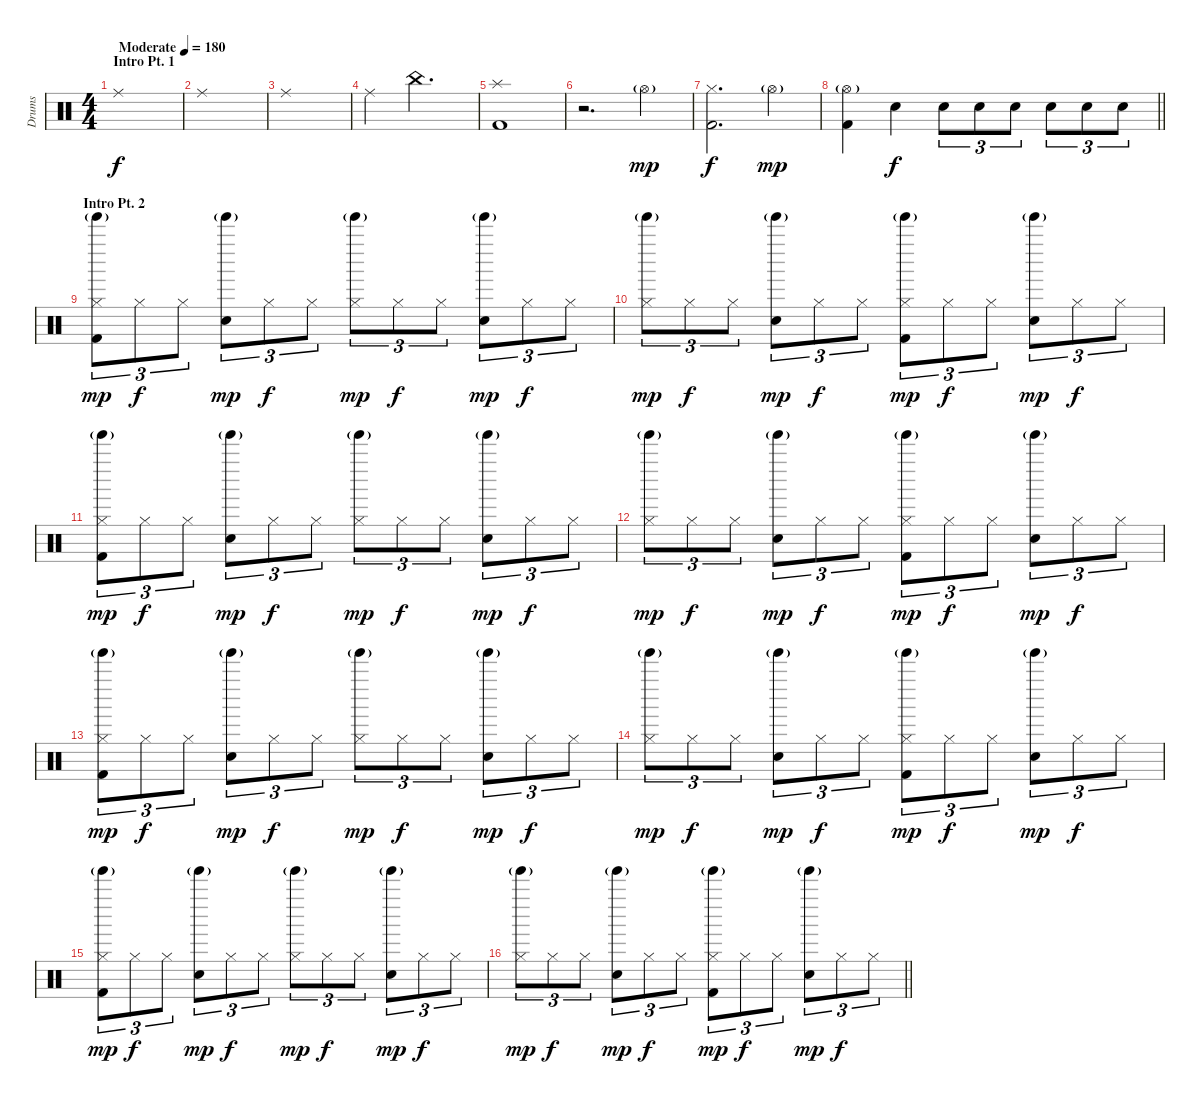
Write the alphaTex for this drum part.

\track ("Drums" "Drums") {instrument percussion}
\staff {score}
\articulation defaults
\ts (4 4)
\section ("" "Intro Pt. 1")
\tempo (180 "Moderate")
\clef neutral
\ks c "Ride (middle)".1{dy f}
|
"Ride (middle)".1 |
"Ride (middle)".1 |
"Ride (middle)".4 "China (hit)".2{d} |
("Splash (hit)" "Kick (hit) 2").1 |
r.2{d} "Hi-Hat (open)"{g}.4{dy mp} |
("Hi-Hat (closed)" "Kick (hit) 2").2{d dy f} "Hi-Hat (open)"{g}.4{dy mp} |
\barLineRight lightlight
("Hi-Hat (open)"{g} "Kick (hit) 2").4 "Electric Snare (hit)".4{dy f} "Electric Snare (hit)".8{tu (3 2)} "Electric Snare (hit)".8{tu (3 2)} "Electric Snare (hit)".8{tu (3 2)} "Electric Snare (hit)".8{tu (3 2)} "Electric Snare (hit)".8{tu (3 2)} "Electric Snare (hit)".8{tu (3 2)} |
\section ("" "Intro Pt. 2")
("Tinkle Bell (hit)"{g} "Hi-Hat (closed)" "Kick (hit) 2").8{tu (3 2) dy mp} "Hi-Hat (closed)".8{tu (3 2) dy f} "Hi-Hat (closed)".8{tu (3 2)} ("Tinkle Bell (hit)"{g} "Electric Snare (hit)").8{tu (3 2) dy mp} "Hi-Hat (closed)".8{tu (3 2) dy f} "Hi-Hat (closed)".8{tu (3 2)} ("Tinkle Bell (hit)"{g} "Hi-Hat (closed)").8{tu (3 2) dy mp} "Hi-Hat (closed)".8{tu (3 2) dy f} "Hi-Hat (closed)".8{tu (3 2)} ("Tinkle Bell (hit)"{g} "Electric Snare (hit)").8{tu (3 2) dy mp} "Hi-Hat (closed)".8{tu (3 2) dy f} "Hi-Hat (closed)".8{tu (3 2)} |
("Tinkle Bell (hit)"{g} "Hi-Hat (closed)").8{tu (3 2) dy mp} "Hi-Hat (closed)".8{tu (3 2) dy f} "Hi-Hat (closed)".8{tu (3 2)} ("Tinkle Bell (hit)"{g} "Electric Snare (hit)").8{tu (3 2) dy mp} "Hi-Hat (closed)".8{tu (3 2) dy f} "Hi-Hat (closed)".8{tu (3 2)} ("Tinkle Bell (hit)"{g} "Hi-Hat (closed)" "Kick (hit) 2").8{tu (3 2) dy mp} "Hi-Hat (closed)".8{tu (3 2) dy f} "Hi-Hat (closed)".8{tu (3 2)} ("Tinkle Bell (hit)"{g} "Electric Snare (hit)").8{tu (3 2) dy mp} "Hi-Hat (closed)".8{tu (3 2) dy f} "Hi-Hat (closed)".8{tu (3 2)} |
("Tinkle Bell (hit)"{g} "Hi-Hat (closed)" "Kick (hit) 2").8{tu (3 2) dy mp} "Hi-Hat (closed)".8{tu (3 2) dy f} "Hi-Hat (closed)".8{tu (3 2)} ("Tinkle Bell (hit)"{g} "Electric Snare (hit)").8{tu (3 2) dy mp} "Hi-Hat (closed)".8{tu (3 2) dy f} "Hi-Hat (closed)".8{tu (3 2)} ("Tinkle Bell (hit)"{g} "Hi-Hat (closed)").8{tu (3 2) dy mp} "Hi-Hat (closed)".8{tu (3 2) dy f} "Hi-Hat (closed)".8{tu (3 2)} ("Tinkle Bell (hit)"{g} "Electric Snare (hit)").8{tu (3 2) dy mp} "Hi-Hat (closed)".8{tu (3 2) dy f} "Hi-Hat (closed)".8{tu (3 2)} |
("Tinkle Bell (hit)"{g} "Hi-Hat (closed)").8{tu (3 2) dy mp} "Hi-Hat (closed)".8{tu (3 2) dy f} "Hi-Hat (closed)".8{tu (3 2)} ("Tinkle Bell (hit)"{g} "Electric Snare (hit)").8{tu (3 2) dy mp} "Hi-Hat (closed)".8{tu (3 2) dy f} "Hi-Hat (closed)".8{tu (3 2)} ("Tinkle Bell (hit)"{g} "Hi-Hat (closed)" "Kick (hit) 2").8{tu (3 2) dy mp} "Hi-Hat (closed)".8{tu (3 2) dy f} "Hi-Hat (closed)".8{tu (3 2)} ("Tinkle Bell (hit)"{g} "Electric Snare (hit)").8{tu (3 2) dy mp} "Hi-Hat (closed)".8{tu (3 2) dy f} "Hi-Hat (closed)".8{tu (3 2)} |
("Tinkle Bell (hit)"{g} "Hi-Hat (closed)" "Kick (hit) 2").8{tu (3 2) dy mp} "Hi-Hat (closed)".8{tu (3 2) dy f} "Hi-Hat (closed)".8{tu (3 2)} ("Tinkle Bell (hit)"{g} "Electric Snare (hit)").8{tu (3 2) dy mp} "Hi-Hat (closed)".8{tu (3 2) dy f} "Hi-Hat (closed)".8{tu (3 2)} ("Tinkle Bell (hit)"{g} "Hi-Hat (closed)").8{tu (3 2) dy mp} "Hi-Hat (closed)".8{tu (3 2) dy f} "Hi-Hat (closed)".8{tu (3 2)} ("Tinkle Bell (hit)"{g} "Electric Snare (hit)").8{tu (3 2) dy mp} "Hi-Hat (closed)".8{tu (3 2) dy f} "Hi-Hat (closed)".8{tu (3 2)} |
("Tinkle Bell (hit)"{g} "Hi-Hat (closed)").8{tu (3 2) dy mp} "Hi-Hat (closed)".8{tu (3 2) dy f} "Hi-Hat (closed)".8{tu (3 2)} ("Tinkle Bell (hit)"{g} "Electric Snare (hit)").8{tu (3 2) dy mp} "Hi-Hat (closed)".8{tu (3 2) dy f} "Hi-Hat (closed)".8{tu (3 2)} ("Tinkle Bell (hit)"{g} "Hi-Hat (closed)" "Kick (hit) 2").8{tu (3 2) dy mp} "Hi-Hat (closed)".8{tu (3 2) dy f} "Hi-Hat (closed)".8{tu (3 2)} ("Tinkle Bell (hit)"{g} "Electric Snare (hit)").8{tu (3 2) dy mp} "Hi-Hat (closed)".8{tu (3 2) dy f} "Hi-Hat (closed)".8{tu (3 2)} |
("Tinkle Bell (hit)"{g} "Hi-Hat (closed)" "Kick (hit) 2").8{tu (3 2) dy mp} "Hi-Hat (closed)".8{tu (3 2) dy f} "Hi-Hat (closed)".8{tu (3 2)} ("Tinkle Bell (hit)"{g} "Electric Snare (hit)").8{tu (3 2) dy mp} "Hi-Hat (closed)".8{tu (3 2) dy f} "Hi-Hat (closed)".8{tu (3 2)} ("Tinkle Bell (hit)"{g} "Hi-Hat (closed)").8{tu (3 2) dy mp} "Hi-Hat (closed)".8{tu (3 2) dy f} "Hi-Hat (closed)".8{tu (3 2)} ("Tinkle Bell (hit)"{g} "Electric Snare (hit)").8{tu (3 2) dy mp} "Hi-Hat (closed)".8{tu (3 2) dy f} "Hi-Hat (closed)".8{tu (3 2)} |
\barLineRight lightlight
("Tinkle Bell (hit)"{g} "Hi-Hat (closed)").8{tu (3 2) dy mp} "Hi-Hat (closed)".8{tu (3 2) dy f} "Hi-Hat (closed)".8{tu (3 2)} ("Tinkle Bell (hit)"{g} "Electric Snare (hit)").8{tu (3 2) dy mp} "Hi-Hat (closed)".8{tu (3 2) dy f} "Hi-Hat (closed)".8{tu (3 2)} ("Tinkle Bell (hit)"{g} "Hi-Hat (closed)" "Kick (hit) 2").8{tu (3 2) dy mp} "Hi-Hat (closed)".8{tu (3 2) dy f} "Hi-Hat (closed)".8{tu (3 2)} ("Tinkle Bell (hit)"{g} "Electric Snare (hit)").8{tu (3 2) dy mp} "Hi-Hat (closed)".8{tu (3 2) dy f} "Hi-Hat (closed)".8{tu (3 2)}
